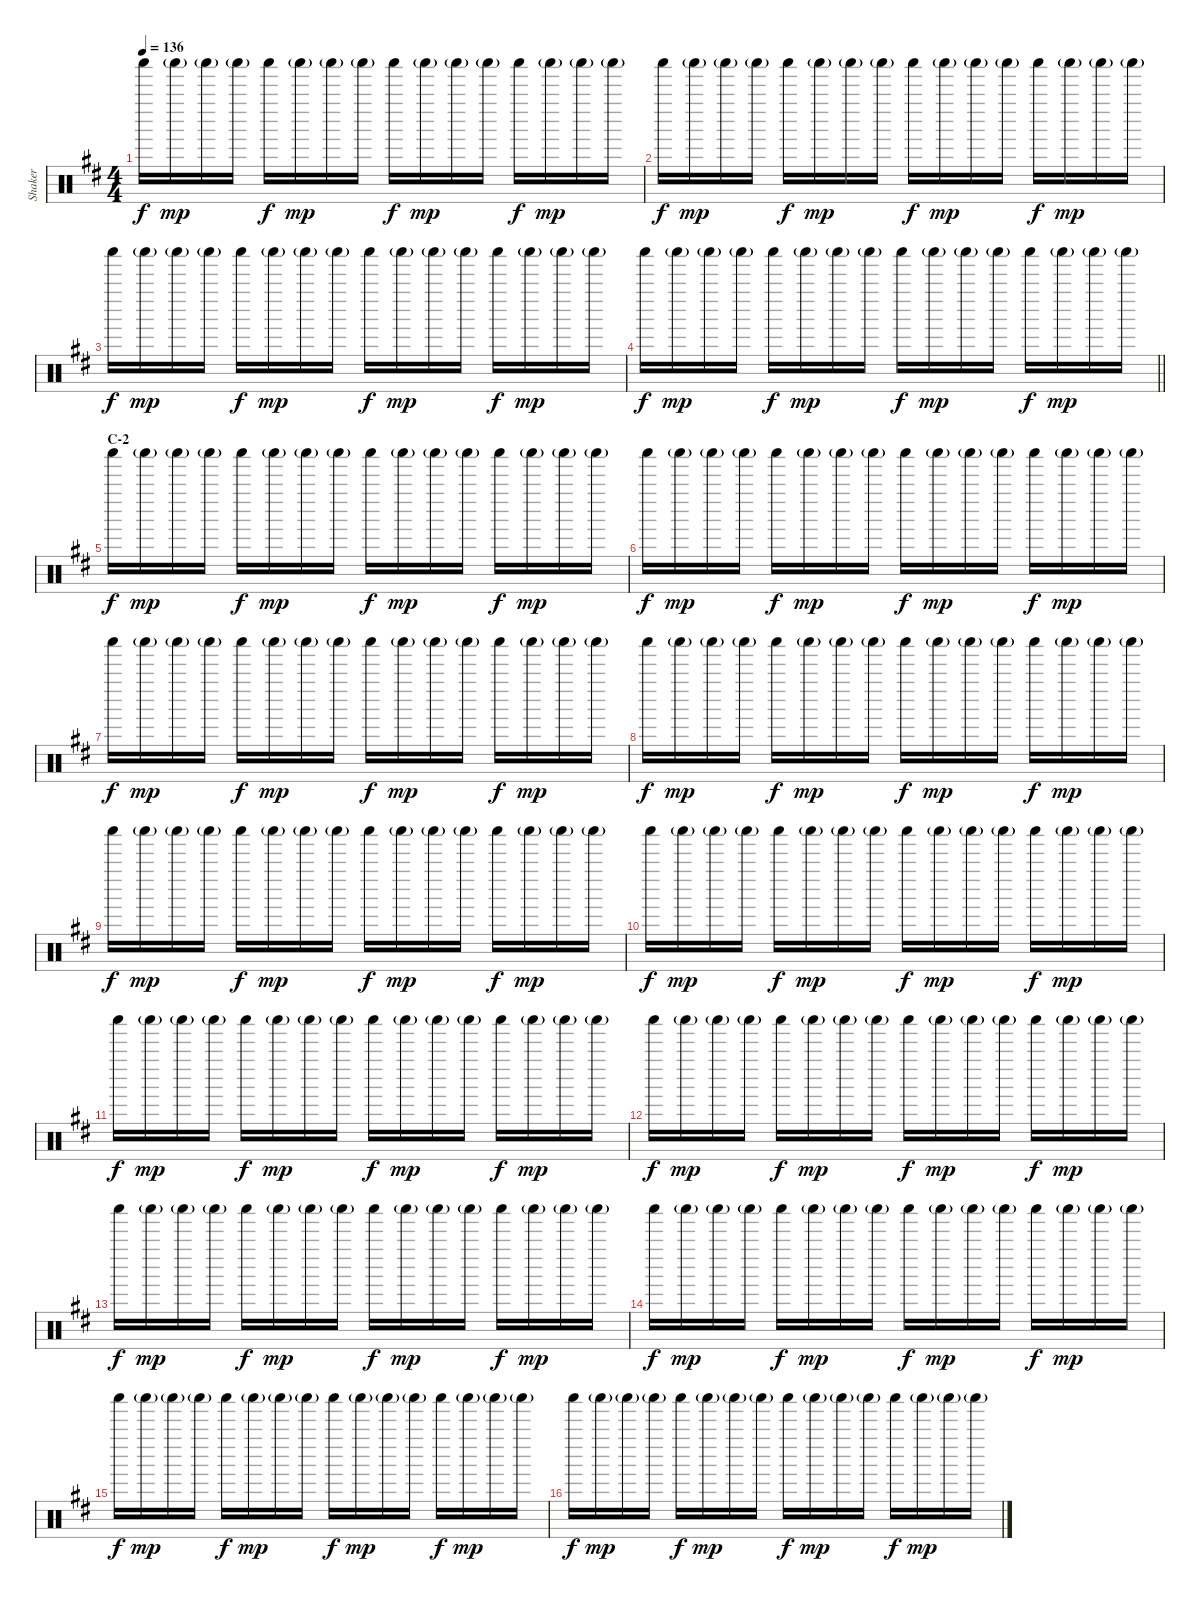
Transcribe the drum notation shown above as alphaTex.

\track ("Shaker" "Shaker") {instrument percussion}
\staff {score}
\articulation defaults
\ts (4 4)
\tempo 136
\clef neutral
\ks d "Shaker (hit)".16{dy f} "Shaker (hit)"{g}.16{dy mp} "Shaker (hit)"{g}.16 "Shaker (hit)"{g}.16 "Shaker (hit)".16{dy f} "Shaker (hit)"{g}.16{dy mp} "Shaker (hit)"{g}.16 "Shaker (hit)"{g}.16 "Shaker (hit)".16{dy f} "Shaker (hit)"{g}.16{dy mp} "Shaker (hit)"{g}.16 "Shaker (hit)"{g}.16 "Shaker (hit)".16{dy f} "Shaker (hit)"{g}.16{dy mp} "Shaker (hit)"{g}.16 "Shaker (hit)"{g}.16
|
"Shaker (hit)".16{dy f} "Shaker (hit)"{g}.16{dy mp} "Shaker (hit)"{g}.16 "Shaker (hit)"{g}.16 "Shaker (hit)".16{dy f} "Shaker (hit)"{g}.16{dy mp} "Shaker (hit)"{g}.16 "Shaker (hit)"{g}.16 "Shaker (hit)".16{dy f} "Shaker (hit)"{g}.16{dy mp} "Shaker (hit)"{g}.16 "Shaker (hit)"{g}.16 "Shaker (hit)".16{dy f} "Shaker (hit)"{g}.16{dy mp} "Shaker (hit)"{g}.16 "Shaker (hit)"{g}.16 |
"Shaker (hit)".16{dy f} "Shaker (hit)"{g}.16{dy mp} "Shaker (hit)"{g}.16 "Shaker (hit)"{g}.16 "Shaker (hit)".16{dy f} "Shaker (hit)"{g}.16{dy mp} "Shaker (hit)"{g}.16 "Shaker (hit)"{g}.16 "Shaker (hit)".16{dy f} "Shaker (hit)"{g}.16{dy mp} "Shaker (hit)"{g}.16 "Shaker (hit)"{g}.16 "Shaker (hit)".16{dy f} "Shaker (hit)"{g}.16{dy mp} "Shaker (hit)"{g}.16 "Shaker (hit)"{g}.16 |
\barLineRight lightlight "Shaker (hit)".16{dy f} "Shaker (hit)"{g}.16{dy mp} "Shaker (hit)"{g}.16 "Shaker (hit)"{g}.16 "Shaker (hit)".16{dy f} "Shaker (hit)"{g}.16{dy mp} "Shaker (hit)"{g}.16 "Shaker (hit)"{g}.16 "Shaker (hit)".16{dy f} "Shaker (hit)"{g}.16{dy mp} "Shaker (hit)"{g}.16 "Shaker (hit)"{g}.16 "Shaker (hit)".16{dy f} "Shaker (hit)"{g}.16{dy mp} "Shaker (hit)"{g}.16 "Shaker (hit)"{g}.16
|
\section ("" "C-2")
"Shaker (hit)".16{dy f} "Shaker (hit)"{g}.16{dy mp} "Shaker (hit)"{g}.16 "Shaker (hit)"{g}.16 "Shaker (hit)".16{dy f} "Shaker (hit)"{g}.16{dy mp} "Shaker (hit)"{g}.16 "Shaker (hit)"{g}.16 "Shaker (hit)".16{dy f} "Shaker (hit)"{g}.16{dy mp} "Shaker (hit)"{g}.16 "Shaker (hit)"{g}.16 "Shaker (hit)".16{dy f} "Shaker (hit)"{g}.16{dy mp} "Shaker (hit)"{g}.16 "Shaker (hit)"{g}.16 |
"Shaker (hit)".16{dy f} "Shaker (hit)"{g}.16{dy mp} "Shaker (hit)"{g}.16 "Shaker (hit)"{g}.16 "Shaker (hit)".16{dy f} "Shaker (hit)"{g}.16{dy mp} "Shaker (hit)"{g}.16 "Shaker (hit)"{g}.16 "Shaker (hit)".16{dy f} "Shaker (hit)"{g}.16{dy mp} "Shaker (hit)"{g}.16 "Shaker (hit)"{g}.16 "Shaker (hit)".16{dy f} "Shaker (hit)"{g}.16{dy mp} "Shaker (hit)"{g}.16 "Shaker (hit)"{g}.16 |
"Shaker (hit)".16{dy f} "Shaker (hit)"{g}.16{dy mp} "Shaker (hit)"{g}.16 "Shaker (hit)"{g}.16 "Shaker (hit)".16{dy f} "Shaker (hit)"{g}.16{dy mp} "Shaker (hit)"{g}.16 "Shaker (hit)"{g}.16 "Shaker (hit)".16{dy f} "Shaker (hit)"{g}.16{dy mp} "Shaker (hit)"{g}.16 "Shaker (hit)"{g}.16 "Shaker (hit)".16{dy f} "Shaker (hit)"{g}.16{dy mp} "Shaker (hit)"{g}.16 "Shaker (hit)"{g}.16 |
"Shaker (hit)".16{dy f} "Shaker (hit)"{g}.16{dy mp} "Shaker (hit)"{g}.16 "Shaker (hit)"{g}.16 "Shaker (hit)".16{dy f} "Shaker (hit)"{g}.16{dy mp} "Shaker (hit)"{g}.16 "Shaker (hit)"{g}.16 "Shaker (hit)".16{dy f} "Shaker (hit)"{g}.16{dy mp} "Shaker (hit)"{g}.16 "Shaker (hit)"{g}.16 "Shaker (hit)".16{dy f} "Shaker (hit)"{g}.16{dy mp} "Shaker (hit)"{g}.16 "Shaker (hit)"{g}.16 |
"Shaker (hit)".16{dy f} "Shaker (hit)"{g}.16{dy mp} "Shaker (hit)"{g}.16 "Shaker (hit)"{g}.16 "Shaker (hit)".16{dy f} "Shaker (hit)"{g}.16{dy mp} "Shaker (hit)"{g}.16 "Shaker (hit)"{g}.16 "Shaker (hit)".16{dy f} "Shaker (hit)"{g}.16{dy mp} "Shaker (hit)"{g}.16 "Shaker (hit)"{g}.16 "Shaker (hit)".16{dy f} "Shaker (hit)"{g}.16{dy mp} "Shaker (hit)"{g}.16 "Shaker (hit)"{g}.16 |
"Shaker (hit)".16{dy f} "Shaker (hit)"{g}.16{dy mp} "Shaker (hit)"{g}.16 "Shaker (hit)"{g}.16 "Shaker (hit)".16{dy f} "Shaker (hit)"{g}.16{dy mp} "Shaker (hit)"{g}.16 "Shaker (hit)"{g}.16 "Shaker (hit)".16{dy f} "Shaker (hit)"{g}.16{dy mp} "Shaker (hit)"{g}.16 "Shaker (hit)"{g}.16 "Shaker (hit)".16{dy f} "Shaker (hit)"{g}.16{dy mp} "Shaker (hit)"{g}.16 "Shaker (hit)"{g}.16 |
"Shaker (hit)".16{dy f} "Shaker (hit)"{g}.16{dy mp} "Shaker (hit)"{g}.16 "Shaker (hit)"{g}.16 "Shaker (hit)".16{dy f} "Shaker (hit)"{g}.16{dy mp} "Shaker (hit)"{g}.16 "Shaker (hit)"{g}.16 "Shaker (hit)".16{dy f} "Shaker (hit)"{g}.16{dy mp} "Shaker (hit)"{g}.16 "Shaker (hit)"{g}.16 "Shaker (hit)".16{dy f} "Shaker (hit)"{g}.16{dy mp} "Shaker (hit)"{g}.16 "Shaker (hit)"{g}.16 |
"Shaker (hit)".16{dy f} "Shaker (hit)"{g}.16{dy mp} "Shaker (hit)"{g}.16 "Shaker (hit)"{g}.16 "Shaker (hit)".16{dy f} "Shaker (hit)"{g}.16{dy mp} "Shaker (hit)"{g}.16 "Shaker (hit)"{g}.16 "Shaker (hit)".16{dy f} "Shaker (hit)"{g}.16{dy mp} "Shaker (hit)"{g}.16 "Shaker (hit)"{g}.16 "Shaker (hit)".16{dy f} "Shaker (hit)"{g}.16{dy mp} "Shaker (hit)"{g}.16 "Shaker (hit)"{g}.16 |
"Shaker (hit)".16{dy f} "Shaker (hit)"{g}.16{dy mp} "Shaker (hit)"{g}.16 "Shaker (hit)"{g}.16 "Shaker (hit)".16{dy f} "Shaker (hit)"{g}.16{dy mp} "Shaker (hit)"{g}.16 "Shaker (hit)"{g}.16 "Shaker (hit)".16{dy f} "Shaker (hit)"{g}.16{dy mp} "Shaker (hit)"{g}.16 "Shaker (hit)"{g}.16 "Shaker (hit)".16{dy f} "Shaker (hit)"{g}.16{dy mp} "Shaker (hit)"{g}.16 "Shaker (hit)"{g}.16 |
"Shaker (hit)".16{dy f} "Shaker (hit)"{g}.16{dy mp} "Shaker (hit)"{g}.16 "Shaker (hit)"{g}.16 "Shaker (hit)".16{dy f} "Shaker (hit)"{g}.16{dy mp} "Shaker (hit)"{g}.16 "Shaker (hit)"{g}.16 "Shaker (hit)".16{dy f} "Shaker (hit)"{g}.16{dy mp} "Shaker (hit)"{g}.16 "Shaker (hit)"{g}.16 "Shaker (hit)".16{dy f} "Shaker (hit)"{g}.16{dy mp} "Shaker (hit)"{g}.16 "Shaker (hit)"{g}.16 |
"Shaker (hit)".16{dy f} "Shaker (hit)"{g}.16{dy mp} "Shaker (hit)"{g}.16 "Shaker (hit)"{g}.16 "Shaker (hit)".16{dy f} "Shaker (hit)"{g}.16{dy mp} "Shaker (hit)"{g}.16 "Shaker (hit)"{g}.16 "Shaker (hit)".16{dy f} "Shaker (hit)"{g}.16{dy mp} "Shaker (hit)"{g}.16 "Shaker (hit)"{g}.16 "Shaker (hit)".16{dy f} "Shaker (hit)"{g}.16{dy mp} "Shaker (hit)"{g}.16 "Shaker (hit)"{g}.16 |
"Shaker (hit)".16{dy f} "Shaker (hit)"{g}.16{dy mp} "Shaker (hit)"{g}.16 "Shaker (hit)"{g}.16 "Shaker (hit)".16{dy f} "Shaker (hit)"{g}.16{dy mp} "Shaker (hit)"{g}.16 "Shaker (hit)"{g}.16 "Shaker (hit)".16{dy f} "Shaker (hit)"{g}.16{dy mp} "Shaker (hit)"{g}.16 "Shaker (hit)"{g}.16 "Shaker (hit)".16{dy f} "Shaker (hit)"{g}.16{dy mp} "Shaker (hit)"{g}.16 "Shaker (hit)"{g}.16
